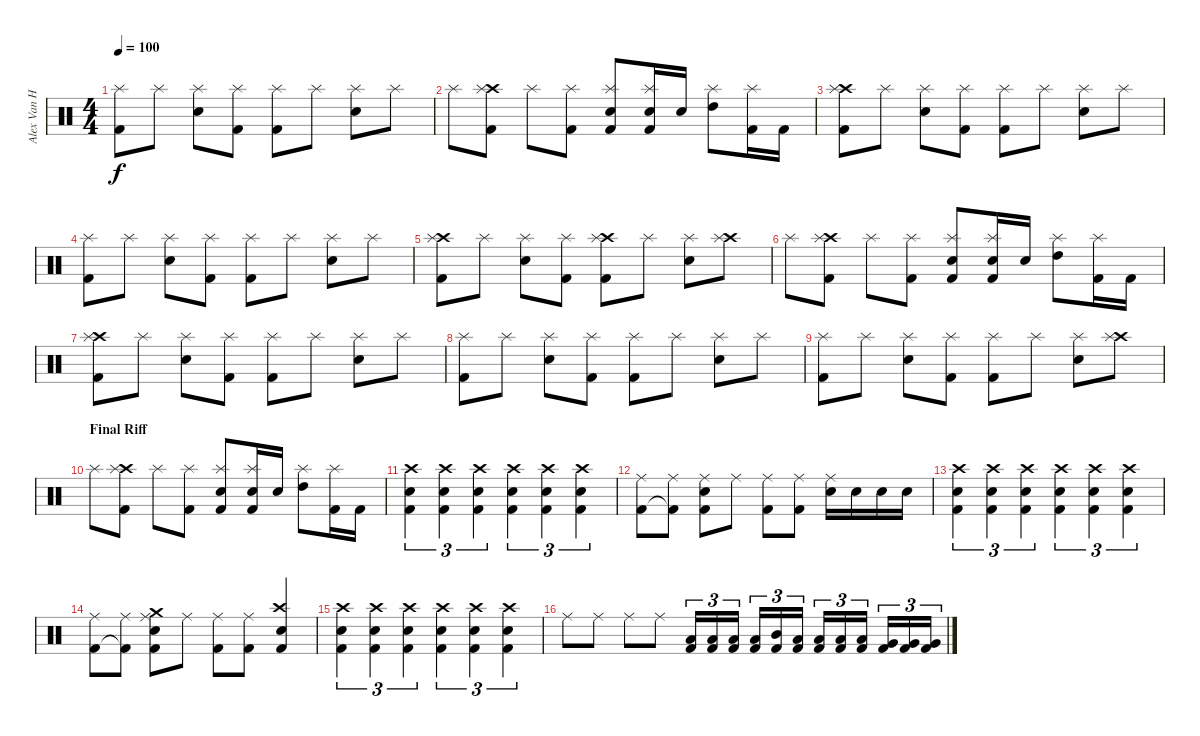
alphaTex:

\track ("Alex Van Halen" "Alex Van H") {instrument percussion}
\staff {score}
\articulation defaults
\ts (4 4)
\tempo 100
\clef neutral
\ks c
("Kick (hit) 2" "Splash (hit)").8{dy f} "Splash (hit)".8 ("Snare (hit) 2" "Splash (hit)").8 ("Kick (hit) 2" "Splash (hit)").8 ("Kick (hit) 2" "Splash (hit)").8 "Splash (hit)".8 ("Snare (hit) 2" "Splash (hit)").8 "Splash (hit)".8 |
"Splash (hit)".8 ("Crash high (hit)" "Kick (hit) 2" "Splash (hit)").8 "Splash (hit)".8 ("Kick (hit) 2" "Splash (hit)").8 ("Snare (hit) 2" "Kick (hit) 2" "Splash (hit)").8 ("Electric Snare (hit)" "Kick (hit) 2" "Splash (hit)").16 "Electric Snare (hit)".16 ("High Tom (hit)" "Splash (hit)").8 ("Kick (hit) 2" "Splash (hit)").16 "Kick (hit) 2".16 |
("Crash high (hit)" "Kick (hit) 2" "Splash (hit)").8 "Splash (hit)".8 ("Snare (hit) 2" "Splash (hit)").8 ("Kick (hit) 2" "Splash (hit)").8 ("Kick (hit) 2" "Splash (hit)").8 "Splash (hit)".8 ("Snare (hit) 2" "Splash (hit)").8 "Splash (hit)".8 |
("Kick (hit) 2" "Splash (hit)").8 "Splash (hit)".8 ("Snare (hit) 2" "Splash (hit)").8 ("Kick (hit) 2" "Splash (hit)").8 ("Kick (hit) 2" "Splash (hit)").8 "Splash (hit)".8 ("Snare (hit) 2" "Splash (hit)").8 "Splash (hit)".8 |
("Crash high (hit)" "Kick (hit) 2" "Splash (hit)").8 "Splash (hit)".8 ("Snare (hit) 2" "Splash (hit)").8 ("Kick (hit) 2" "Splash (hit)").8 ("Crash high (hit)" "Kick (hit) 2" "Splash (hit)").8 "Splash (hit)".8 ("Snare (hit) 2" "Splash (hit)").8 ("Crash high (hit)" "Splash (hit)").8 |
"Splash (hit)".8 ("Crash high (hit)" "Kick (hit) 2" "Splash (hit)").8 "Splash (hit)".8 ("Kick (hit) 2" "Splash (hit)").8 ("Snare (hit) 2" "Kick (hit) 2" "Splash (hit)").8 ("Electric Snare (hit)" "Kick (hit) 2" "Splash (hit)").16 "Electric Snare (hit)".16 ("High Tom (hit)" "Splash (hit)").8 ("Kick (hit) 2" "Splash (hit)").16 "Kick (hit) 2".16 |
("Crash high (hit)" "Kick (hit) 2" "Splash (hit)").8 "Splash (hit)".8 ("Snare (hit) 2" "Splash (hit)").8 ("Kick (hit) 2" "Splash (hit)").8 ("Kick (hit) 2" "Splash (hit)").8 "Splash (hit)".8 ("Snare (hit) 2" "Splash (hit)").8 "Splash (hit)".8 |
("Kick (hit) 2" "Splash (hit)").8 "Splash (hit)".8 ("Snare (hit) 2" "Splash (hit)").8 ("Kick (hit) 2" "Splash (hit)").8 ("Kick (hit) 2" "Splash (hit)").8 "Splash (hit)".8 ("Snare (hit) 2" "Splash (hit)").8 "Splash (hit)".8 |
("Kick (hit) 2" "Splash (hit)").8 "Splash (hit)".8 ("Snare (hit) 2" "Splash (hit)").8 ("Kick (hit) 2" "Splash (hit)").8 ("Kick (hit) 2" "Splash (hit)").8 "Splash (hit)".8 ("Snare (hit) 2" "Splash (hit)").8 ("Crash high (hit)" "Splash (hit)").8 |
\section ("" "Final Riff")
"Splash (hit)".8 ("Crash high (hit)" "Kick (hit) 2" "Splash (hit)").8 "Splash (hit)".8 ("Kick (hit) 2" "Splash (hit)").8 ("Snare (hit) 2" "Kick (hit) 2" "Splash (hit)").8 ("Electric Snare (hit)" "Kick (hit) 2" "Splash (hit)").16 "Electric Snare (hit)".16 ("High Tom (hit)" "Splash (hit)").8 ("Kick (hit) 2" "Splash (hit)").16 "Kick (hit) 2".16 |
("Crash high (hit)" "Snare (hit) 2" "Kick (hit) 2").4{tu (3 2)} ("Crash high (hit)" "Snare (hit) 2" "Kick (hit) 2").4{tu (3 2)} ("Crash high (hit)" "Snare (hit) 2" "Kick (hit) 2").4{tu (3 2)} ("Crash high (hit)" "Snare (hit) 2" "Kick (hit) 2").4{tu (3 2)} ("Crash high (hit)" "Snare (hit) 2" "Kick (hit) 2").4{tu (3 2)} ("Crash high (hit)" "Snare (hit) 2" "Kick (hit) 2").4{tu (3 2)} |
("Ride (middle)" "Kick (hit) 2").8 ("Ride (middle)" "Kick (hit) 2"{t}).8 ("Ride (middle)" "Electric Snare (hit)" "Kick (hit) 2").8 "Ride (middle)".8 ("Ride (middle)" "Kick (hit) 2").8 ("Ride (middle)" "Kick (hit) 2").8 ("Ride (middle)" "Snare (hit) 2").16 "Snare (hit) 2".16 "Electric Snare (hit)".16 "Electric Snare (hit)".16 |
("Crash high (hit)" "Snare (hit) 2" "Kick (hit) 2").4{tu (3 2)} ("Crash high (hit)" "Snare (hit) 2" "Kick (hit) 2").4{tu (3 2)} ("Crash high (hit)" "Snare (hit) 2" "Kick (hit) 2").4{tu (3 2)} ("Crash high (hit)" "Snare (hit) 2" "Kick (hit) 2").4{tu (3 2)} ("Crash high (hit)" "Snare (hit) 2" "Kick (hit) 2").4{tu (3 2)} ("Crash high (hit)" "Snare (hit) 2" "Kick (hit) 2").4{tu (3 2)} |
("Ride (middle)" "Kick (hit) 2").8 ("Ride (middle)" "Kick (hit) 2"{t}).8 ("Crash medium (hit)" "Ride (middle)" "Electric Snare (hit)" "Kick (hit) 2").8 "Ride (middle)".8 ("Ride (middle)" "Kick (hit) 2").8 ("Ride (middle)" "Kick (hit) 2").8 ("Crash high (hit)" "Electric Snare (hit)" "Kick (hit) 2").4 |
("Crash high (hit)" "Snare (hit) 2" "Kick (hit) 2").4{tu (3 2)} ("Crash high (hit)" "Snare (hit) 2" "Kick (hit) 2").4{tu (3 2)} ("Crash high (hit)" "Snare (hit) 2" "Kick (hit) 2").4{tu (3 2)} ("Crash high (hit)" "Snare (hit) 2" "Kick (hit) 2").4{tu (3 2)} ("Crash high (hit)" "Snare (hit) 2" "Kick (hit) 2").4{tu (3 2)} ("Crash high (hit)" "Snare (hit) 2" "Kick (hit) 2").4{tu (3 2)} |
"Ride (middle)".8 "Ride (middle)".8 "Ride (middle)".8 "Ride (middle)".8 ("Kick (hit) 2" "Low Tom (hit)").16{tu (3 2)} ("Kick (hit) 2" "Low Tom (hit)").16{tu (3 2)} ("Kick (hit) 2" "Low Tom (hit)").16{tu (3 2)} ("Kick (hit) 2" "Low Tom (hit)").16{tu (3 2)} ("Mid Tom (hit)" "Kick (hit) 2").16{tu (3 2)} ("Kick (hit) 2" "Low Tom (hit)").16{tu (3 2)} ("Kick (hit) 2" "Low Tom (hit)").16{tu (3 2)} ("Kick (hit) 2" "Low Tom (hit)").16{tu (3 2)} ("Kick (hit) 2" "Low Tom (hit)").16{tu (3 2)} ("Kick (hit) 2" "Very Low Tom (hit)").16{tu (3 2)} ("Kick (hit) 2" "Very Low Tom (hit)").16{tu (3 2)} ("Kick (hit) 2" "Very Low Tom (hit)").16{tu (3 2)}
